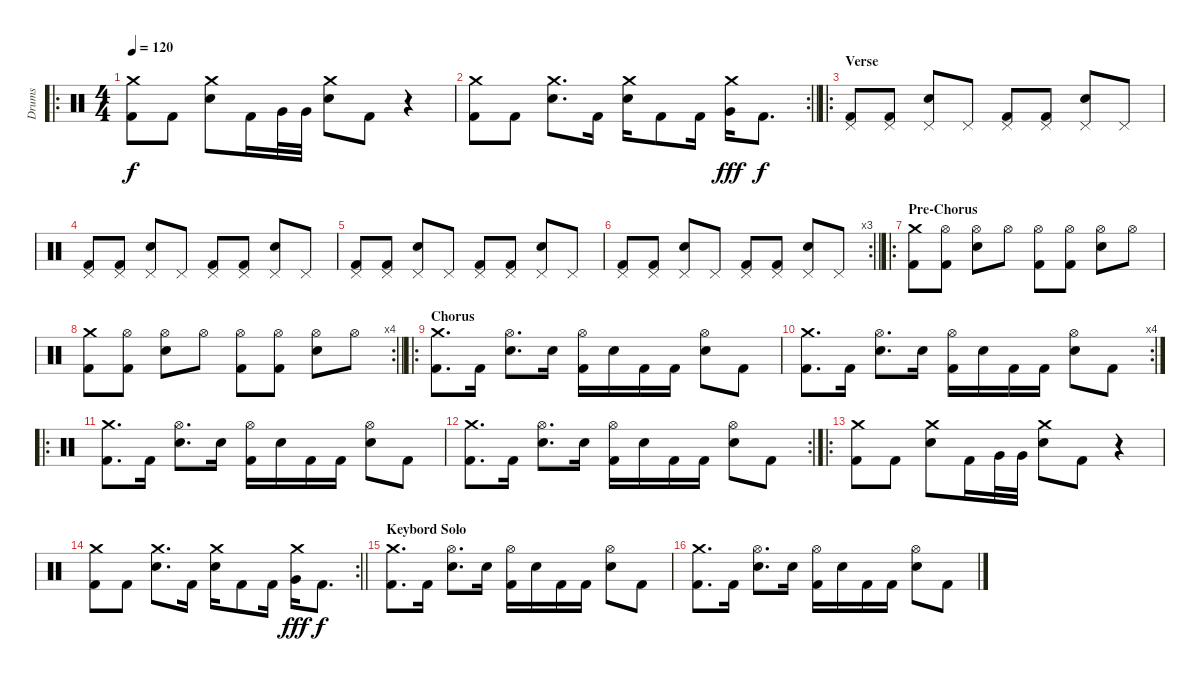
\track ("Drums" "Drums") {instrument percussion}
\staff {score}
\articulation defaults
\ro
\ts (4 4)
\tempo 120
\clef neutral
\ks c
("Crash medium (hit)" "Kick (hit) 2").8{dy f} "Kick (hit) 2".8 ("Crash medium (hit)" "Electric Snare (hit)").8 "Kick (hit) 2".16 "Very Low Tom (hit)".32 "Very Low Tom (hit)".32 ("Crash medium (hit)" "Electric Snare (hit)").8 "Kick (hit) 2".8 r.4 |
\rc 2
\barLineRight lightlight
("Crash medium (hit)" "Kick (hit) 2").8 "Kick (hit) 2".8 ("Crash medium (hit)" "Electric Snare (hit)").8{d} "Kick (hit) 2".16 ("Crash medium (hit)" "Electric Snare (hit)").16 "Kick (hit) 2".8 "Kick (hit) 2".16 ("Crash medium (hit)" "Very Low Tom (hit)").16{dy fff} "Kick (hit) 2".8{d dy f} |
\ro
\section ("" "Verse")
("Pedal Hi-Hat (hit)" "Kick (hit) 2").8 ("Pedal Hi-Hat (hit)" "Kick (hit) 2").8 ("Pedal Hi-Hat (hit)" "Electric Snare (hit)").8 "Pedal Hi-Hat (hit)".8 ("Pedal Hi-Hat (hit)" "Kick (hit) 2").8 ("Pedal Hi-Hat (hit)" "Kick (hit) 2").8 ("Pedal Hi-Hat (hit)" "Electric Snare (hit)").8 "Pedal Hi-Hat (hit)".8 |
("Pedal Hi-Hat (hit)" "Kick (hit) 2").8 ("Pedal Hi-Hat (hit)" "Kick (hit) 2").8 ("Pedal Hi-Hat (hit)" "Electric Snare (hit)").8 "Pedal Hi-Hat (hit)".8 ("Pedal Hi-Hat (hit)" "Kick (hit) 2").8 ("Pedal Hi-Hat (hit)" "Kick (hit) 2").8 ("Pedal Hi-Hat (hit)" "Electric Snare (hit)").8 "Pedal Hi-Hat (hit)".8 |
("Pedal Hi-Hat (hit)" "Kick (hit) 2").8 ("Pedal Hi-Hat (hit)" "Kick (hit) 2").8 ("Pedal Hi-Hat (hit)" "Electric Snare (hit)").8 "Pedal Hi-Hat (hit)".8 ("Pedal Hi-Hat (hit)" "Kick (hit) 2").8 ("Pedal Hi-Hat (hit)" "Kick (hit) 2").8 ("Pedal Hi-Hat (hit)" "Electric Snare (hit)").8 "Pedal Hi-Hat (hit)".8 |
\rc 3
\barLineRight lightlight
("Pedal Hi-Hat (hit)" "Kick (hit) 2").8 ("Pedal Hi-Hat (hit)" "Kick (hit) 2").8 ("Pedal Hi-Hat (hit)" "Electric Snare (hit)").8 "Pedal Hi-Hat (hit)".8 ("Pedal Hi-Hat (hit)" "Kick (hit) 2").8 ("Pedal Hi-Hat (hit)" "Kick (hit) 2").8 ("Pedal Hi-Hat (hit)" "Electric Snare (hit)").8 "Pedal Hi-Hat (hit)".8 |
\ro
\section ("" "Pre-Chorus")
("Crash medium (hit)" "Kick (hit) 2").8 ("Hi-Hat (open)" "Kick (hit) 2").8 ("Hi-Hat (open)" "Electric Snare (hit)").8 "Hi-Hat (open)".8 ("Hi-Hat (open)" "Kick (hit) 2").8 ("Hi-Hat (open)" "Kick (hit) 2").8 ("Hi-Hat (open)" "Electric Snare (hit)").8 "Hi-Hat (open)".8 |
\rc 4
\barLineRight lightlight
("Crash medium (hit)" "Kick (hit) 2").8 ("Hi-Hat (open)" "Kick (hit) 2").8 ("Hi-Hat (open)" "Electric Snare (hit)").8 "Hi-Hat (open)".8 ("Hi-Hat (open)" "Kick (hit) 2").8 ("Hi-Hat (open)" "Kick (hit) 2").8 ("Hi-Hat (open)" "Electric Snare (hit)").8 "Hi-Hat (open)".8 |
\ro
\section ("" "Chorus")
("Crash medium (hit)" "Kick (hit) 2").8{d} "Kick (hit) 2".16 ("Hi-Hat (open)" "Electric Snare (hit)").8{d} "Electric Snare (hit)".16 ("Hi-Hat (open)" "Kick (hit) 2").16 "Electric Snare (hit)".16 "Kick (hit) 2".16 "Kick (hit) 2".16 ("Hi-Hat (open)" "Electric Snare (hit)").8 "Kick (hit) 2".8 |
\rc 4
("Crash medium (hit)" "Kick (hit) 2").8{d} "Kick (hit) 2".16 ("Hi-Hat (open)" "Electric Snare (hit)").8{d} "Electric Snare (hit)".16 ("Hi-Hat (open)" "Kick (hit) 2").16 "Electric Snare (hit)".16 "Kick (hit) 2".16 "Kick (hit) 2".16 ("Hi-Hat (open)" "Electric Snare (hit)").8 "Kick (hit) 2".8 |
\ro
("Crash medium (hit)" "Kick (hit) 2").8{d} "Kick (hit) 2".16 ("Hi-Hat (open)" "Electric Snare (hit)").8{d} "Electric Snare (hit)".16 ("Hi-Hat (open)" "Kick (hit) 2").16 "Electric Snare (hit)".16 "Kick (hit) 2".16 "Kick (hit) 2".16 ("Hi-Hat (open)" "Electric Snare (hit)").8 "Kick (hit) 2".8 |
\rc 2
("Crash medium (hit)" "Kick (hit) 2").8{d} "Kick (hit) 2".16 ("Hi-Hat (open)" "Electric Snare (hit)").8{d} "Electric Snare (hit)".16 ("Hi-Hat (open)" "Kick (hit) 2").16 "Electric Snare (hit)".16 "Kick (hit) 2".16 "Kick (hit) 2".16 ("Hi-Hat (open)" "Electric Snare (hit)").8 "Kick (hit) 2".8 |
\ro
("Crash medium (hit)" "Kick (hit) 2").8 "Kick (hit) 2".8 ("Crash medium (hit)" "Electric Snare (hit)").8 "Kick (hit) 2".16 "Very Low Tom (hit)".32 "Very Low Tom (hit)".32 ("Crash medium (hit)" "Electric Snare (hit)").8 "Kick (hit) 2".8 r.4 |
\rc 2
\barLineRight lightlight
("Crash medium (hit)" "Kick (hit) 2").8 "Kick (hit) 2".8 ("Crash medium (hit)" "Electric Snare (hit)").8{d} "Kick (hit) 2".16 ("Crash medium (hit)" "Electric Snare (hit)").16 "Kick (hit) 2".8 "Kick (hit) 2".16 ("Crash medium (hit)" "Very Low Tom (hit)").16{dy fff} "Kick (hit) 2".8{d dy f} |
\section ("" "Keybord Solo")
("Crash medium (hit)" "Kick (hit) 2").8{d} "Kick (hit) 2".16 ("Hi-Hat (open)" "Electric Snare (hit)").8{d} "Electric Snare (hit)".16 ("Hi-Hat (open)" "Kick (hit) 2").16 "Electric Snare (hit)".16 "Kick (hit) 2".16 "Kick (hit) 2".16 ("Hi-Hat (open)" "Electric Snare (hit)").8 "Kick (hit) 2".8 |
("Crash medium (hit)" "Kick (hit) 2").8{d} "Kick (hit) 2".16 ("Hi-Hat (open)" "Electric Snare (hit)").8{d} "Electric Snare (hit)".16 ("Hi-Hat (open)" "Kick (hit) 2").16 "Electric Snare (hit)".16 "Kick (hit) 2".16 "Kick (hit) 2".16 ("Hi-Hat (open)" "Electric Snare (hit)").8 "Kick (hit) 2".8
